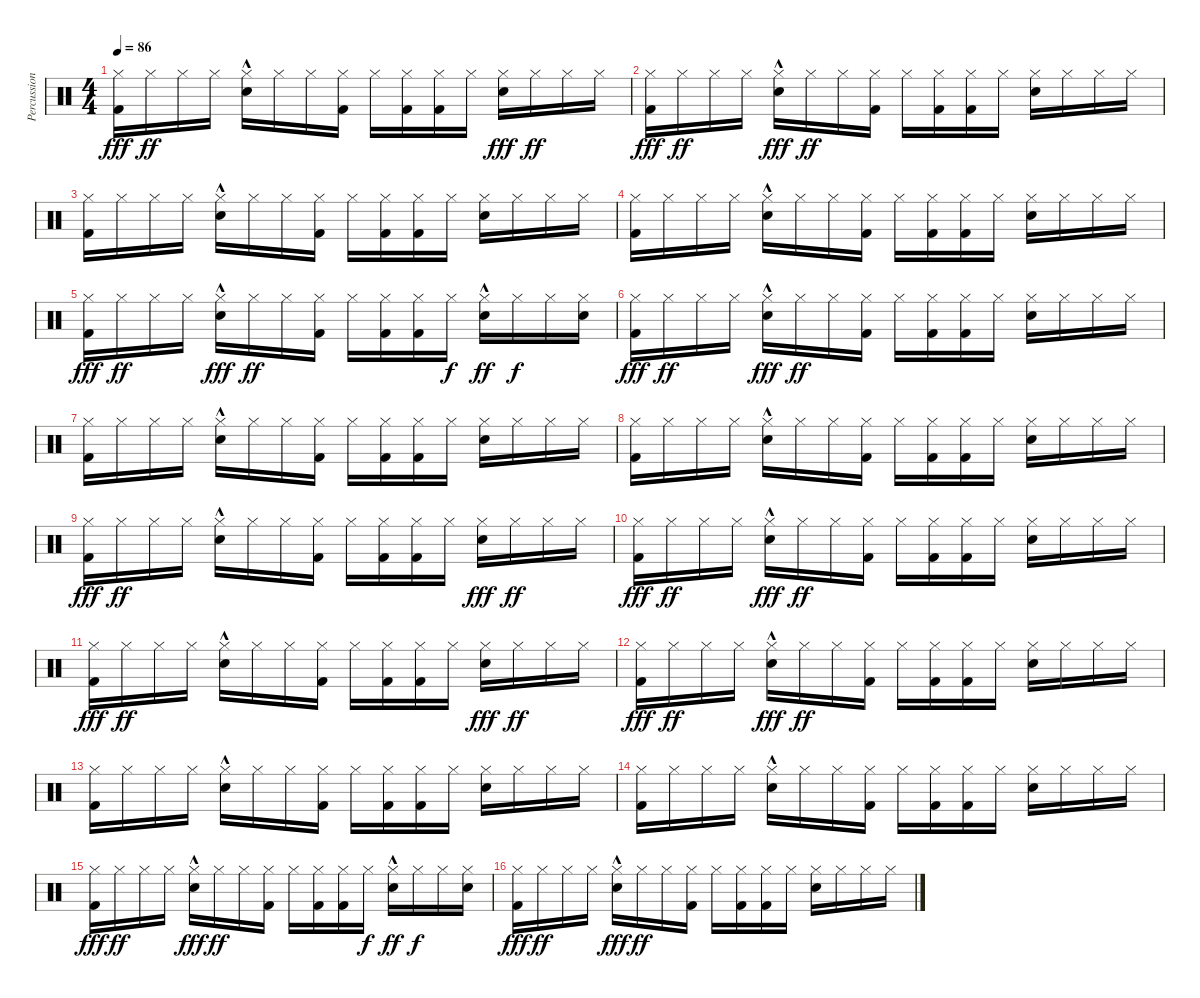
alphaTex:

\track ("Percussion" "Percussion") {instrument percussion}
\staff {score}
\articulation defaults
\ts (4 4)
\tempo 86
\clef neutral
\ks c
("Hi-Hat (closed)" "Kick (hit) 2").16{dy fff} "Hi-Hat (closed)".16{dy ff} "Hi-Hat (closed)".16 "Hi-Hat (closed)".16 ("Hi-Hat (closed)" "Snare (hit) 2"{hac}).16 "Hi-Hat (closed)".16 "Hi-Hat (closed)".16 ("Hi-Hat (closed)" "Kick (hit) 2").16 "Hi-Hat (closed)".16 ("Hi-Hat (closed)" "Kick (hit) 2").16 ("Hi-Hat (closed)" "Kick (hit) 2").16 "Hi-Hat (closed)".16 ("Hi-Hat (closed)" "Snare (hit) 2").16{dy fff} "Hi-Hat (closed)".16{dy ff} "Hi-Hat (closed)".16 "Hi-Hat (closed)".16 |
("Hi-Hat (closed)" "Kick (hit) 2").16{dy fff} "Hi-Hat (closed)".16{dy ff} "Hi-Hat (closed)".16 "Hi-Hat (closed)".16 ("Hi-Hat (closed)" "Snare (hit) 2"{hac}).16{dy fff} "Hi-Hat (closed)".16{dy ff} "Hi-Hat (closed)".16 ("Hi-Hat (closed)" "Kick (hit) 2").16 "Hi-Hat (closed)".16 ("Hi-Hat (closed)" "Kick (hit) 2").16 ("Hi-Hat (closed)" "Kick (hit) 2").16 "Hi-Hat (closed)".16 ("Hi-Hat (closed)" "Snare (hit) 2").16 "Hi-Hat (closed)".16 "Hi-Hat (closed)".16 "Hi-Hat (closed)".16 |
("Hi-Hat (closed)" "Kick (hit) 2").16 "Hi-Hat (closed)".16 "Hi-Hat (closed)".16 "Hi-Hat (closed)".16 ("Snare (hit) 2"{hac} "Hi-Hat (closed)").16 "Hi-Hat (closed)".16 "Hi-Hat (closed)".16 ("Hi-Hat (closed)" "Kick (hit) 2").16 "Hi-Hat (closed)".16 ("Kick (hit) 2" "Hi-Hat (closed)").16 ("Kick (hit) 2" "Hi-Hat (closed)").16 "Hi-Hat (closed)".16 ("Hi-Hat (closed)" "Snare (hit) 2").16 "Hi-Hat (closed)".16 "Hi-Hat (closed)".16 "Hi-Hat (closed)".16 |
("Hi-Hat (closed)" "Kick (hit) 2").16 "Hi-Hat (closed)".16 "Hi-Hat (closed)".16 "Hi-Hat (closed)".16 ("Snare (hit) 2"{hac} "Hi-Hat (closed)").16 "Hi-Hat (closed)".16 "Hi-Hat (closed)".16 ("Hi-Hat (closed)" "Kick (hit) 2").16 "Hi-Hat (closed)".16 ("Kick (hit) 2" "Hi-Hat (closed)").16 ("Kick (hit) 2" "Hi-Hat (closed)").16 "Hi-Hat (closed)".16 ("Hi-Hat (closed)" "Snare (hit) 2").16 "Hi-Hat (closed)".16 "Hi-Hat (closed)".16 "Hi-Hat (closed)".16 |
("Hi-Hat (closed)" "Kick (hit) 2").16{dy fff} "Hi-Hat (closed)".16{dy ff} "Hi-Hat (closed)".16 "Hi-Hat (closed)".16 ("Hi-Hat (closed)" "Snare (hit) 2"{hac}).16{dy fff} "Hi-Hat (closed)".16{dy ff} "Hi-Hat (closed)".16 ("Hi-Hat (closed)" "Kick (hit) 2").16 "Hi-Hat (closed)".16 ("Hi-Hat (closed)" "Kick (hit) 2").16 ("Hi-Hat (closed)" "Kick (hit) 2").16 "Hi-Hat (closed)".16{dy f} ("Hi-Hat (closed)" "Snare (hit) 2"{hac}).16{dy ff} "Hi-Hat (closed)".16{dy f} "Hi-Hat (closed)".16 ("Hi-Hat (closed)" "Snare (hit) 2").16 |
("Hi-Hat (closed)" "Kick (hit) 2").16{dy fff} "Hi-Hat (closed)".16{dy ff} "Hi-Hat (closed)".16 "Hi-Hat (closed)".16 ("Hi-Hat (closed)" "Snare (hit) 2"{hac}).16{dy fff} "Hi-Hat (closed)".16{dy ff} "Hi-Hat (closed)".16 ("Hi-Hat (closed)" "Kick (hit) 2").16 "Hi-Hat (closed)".16 ("Hi-Hat (closed)" "Kick (hit) 2").16 ("Hi-Hat (closed)" "Kick (hit) 2").16 "Hi-Hat (closed)".16 ("Hi-Hat (closed)" "Snare (hit) 2").16 "Hi-Hat (closed)".16 "Hi-Hat (closed)".16 "Hi-Hat (closed)".16 |
("Hi-Hat (closed)" "Kick (hit) 2").16 "Hi-Hat (closed)".16 "Hi-Hat (closed)".16 "Hi-Hat (closed)".16 ("Snare (hit) 2"{hac} "Hi-Hat (closed)").16 "Hi-Hat (closed)".16 "Hi-Hat (closed)".16 ("Hi-Hat (closed)" "Kick (hit) 2").16 "Hi-Hat (closed)".16 ("Kick (hit) 2" "Hi-Hat (closed)").16 ("Kick (hit) 2" "Hi-Hat (closed)").16 "Hi-Hat (closed)".16 ("Hi-Hat (closed)" "Snare (hit) 2").16 "Hi-Hat (closed)".16 "Hi-Hat (closed)".16 "Hi-Hat (closed)".16 |
("Hi-Hat (closed)" "Kick (hit) 2").16 "Hi-Hat (closed)".16 "Hi-Hat (closed)".16 "Hi-Hat (closed)".16 ("Snare (hit) 2"{hac} "Hi-Hat (closed)").16 "Hi-Hat (closed)".16 "Hi-Hat (closed)".16 ("Hi-Hat (closed)" "Kick (hit) 2").16 "Hi-Hat (closed)".16 ("Kick (hit) 2" "Hi-Hat (closed)").16 ("Kick (hit) 2" "Hi-Hat (closed)").16 "Hi-Hat (closed)".16 ("Hi-Hat (closed)" "Snare (hit) 2").16 "Hi-Hat (closed)".16 "Hi-Hat (closed)".16 "Hi-Hat (closed)".16 |
("Hi-Hat (closed)" "Kick (hit) 2").16{dy fff} "Hi-Hat (closed)".16{dy ff} "Hi-Hat (closed)".16 "Hi-Hat (closed)".16 ("Hi-Hat (closed)" "Snare (hit) 2"{hac}).16 "Hi-Hat (closed)".16 "Hi-Hat (closed)".16 ("Hi-Hat (closed)" "Kick (hit) 2").16 "Hi-Hat (closed)".16 ("Hi-Hat (closed)" "Kick (hit) 2").16 ("Hi-Hat (closed)" "Kick (hit) 2").16 "Hi-Hat (closed)".16 ("Hi-Hat (closed)" "Snare (hit) 2").16{dy fff} "Hi-Hat (closed)".16{dy ff} "Hi-Hat (closed)".16 "Hi-Hat (closed)".16 |
("Hi-Hat (closed)" "Kick (hit) 2").16{dy fff} "Hi-Hat (closed)".16{dy ff} "Hi-Hat (closed)".16 "Hi-Hat (closed)".16 ("Hi-Hat (closed)" "Snare (hit) 2"{hac}).16{dy fff} "Hi-Hat (closed)".16{dy ff} "Hi-Hat (closed)".16 ("Hi-Hat (closed)" "Kick (hit) 2").16 "Hi-Hat (closed)".16 ("Hi-Hat (closed)" "Kick (hit) 2").16 ("Hi-Hat (closed)" "Kick (hit) 2").16 "Hi-Hat (closed)".16 ("Hi-Hat (closed)" "Snare (hit) 2").16 "Hi-Hat (closed)".16 "Hi-Hat (closed)".16 "Hi-Hat (closed)".16 |
("Hi-Hat (closed)" "Kick (hit) 2").16{dy fff} "Hi-Hat (closed)".16{dy ff} "Hi-Hat (closed)".16 "Hi-Hat (closed)".16 ("Hi-Hat (closed)" "Snare (hit) 2"{hac}).16 "Hi-Hat (closed)".16 "Hi-Hat (closed)".16 ("Hi-Hat (closed)" "Kick (hit) 2").16 "Hi-Hat (closed)".16 ("Hi-Hat (closed)" "Kick (hit) 2").16 ("Hi-Hat (closed)" "Kick (hit) 2").16 "Hi-Hat (closed)".16 ("Hi-Hat (closed)" "Snare (hit) 2").16{dy fff} "Hi-Hat (closed)".16{dy ff} "Hi-Hat (closed)".16 "Hi-Hat (closed)".16 |
("Hi-Hat (closed)" "Kick (hit) 2").16{dy fff} "Hi-Hat (closed)".16{dy ff} "Hi-Hat (closed)".16 "Hi-Hat (closed)".16 ("Hi-Hat (closed)" "Snare (hit) 2"{hac}).16{dy fff} "Hi-Hat (closed)".16{dy ff} "Hi-Hat (closed)".16 ("Hi-Hat (closed)" "Kick (hit) 2").16 "Hi-Hat (closed)".16 ("Hi-Hat (closed)" "Kick (hit) 2").16 ("Hi-Hat (closed)" "Kick (hit) 2").16 "Hi-Hat (closed)".16 ("Hi-Hat (closed)" "Snare (hit) 2").16 "Hi-Hat (closed)".16 "Hi-Hat (closed)".16 "Hi-Hat (closed)".16 |
("Hi-Hat (closed)" "Kick (hit) 2").16 "Hi-Hat (closed)".16 "Hi-Hat (closed)".16 "Hi-Hat (closed)".16 ("Snare (hit) 2"{hac} "Hi-Hat (closed)").16 "Hi-Hat (closed)".16 "Hi-Hat (closed)".16 ("Hi-Hat (closed)" "Kick (hit) 2").16 "Hi-Hat (closed)".16 ("Kick (hit) 2" "Hi-Hat (closed)").16 ("Kick (hit) 2" "Hi-Hat (closed)").16 "Hi-Hat (closed)".16 ("Hi-Hat (closed)" "Snare (hit) 2").16 "Hi-Hat (closed)".16 "Hi-Hat (closed)".16 "Hi-Hat (closed)".16 |
("Hi-Hat (closed)" "Kick (hit) 2").16 "Hi-Hat (closed)".16 "Hi-Hat (closed)".16 "Hi-Hat (closed)".16 ("Snare (hit) 2"{hac} "Hi-Hat (closed)").16 "Hi-Hat (closed)".16 "Hi-Hat (closed)".16 ("Hi-Hat (closed)" "Kick (hit) 2").16 "Hi-Hat (closed)".16 ("Kick (hit) 2" "Hi-Hat (closed)").16 ("Kick (hit) 2" "Hi-Hat (closed)").16 "Hi-Hat (closed)".16 ("Hi-Hat (closed)" "Snare (hit) 2").16 "Hi-Hat (closed)".16 "Hi-Hat (closed)".16 "Hi-Hat (closed)".16 |
("Hi-Hat (closed)" "Kick (hit) 2").16{dy fff} "Hi-Hat (closed)".16{dy ff} "Hi-Hat (closed)".16 "Hi-Hat (closed)".16 ("Hi-Hat (closed)" "Snare (hit) 2"{hac}).16{dy fff} "Hi-Hat (closed)".16{dy ff} "Hi-Hat (closed)".16 ("Hi-Hat (closed)" "Kick (hit) 2").16 "Hi-Hat (closed)".16 ("Hi-Hat (closed)" "Kick (hit) 2").16 ("Hi-Hat (closed)" "Kick (hit) 2").16 "Hi-Hat (closed)".16{dy f} ("Hi-Hat (closed)" "Snare (hit) 2"{hac}).16{dy ff} "Hi-Hat (closed)".16{dy f} "Hi-Hat (closed)".16 ("Hi-Hat (closed)" "Snare (hit) 2").16 |
("Hi-Hat (closed)" "Kick (hit) 2").16{dy fff} "Hi-Hat (closed)".16{dy ff} "Hi-Hat (closed)".16 "Hi-Hat (closed)".16 ("Hi-Hat (closed)" "Snare (hit) 2"{hac}).16{dy fff} "Hi-Hat (closed)".16{dy ff} "Hi-Hat (closed)".16 ("Hi-Hat (closed)" "Kick (hit) 2").16 "Hi-Hat (closed)".16 ("Hi-Hat (closed)" "Kick (hit) 2").16 ("Hi-Hat (closed)" "Kick (hit) 2").16 "Hi-Hat (closed)".16 ("Hi-Hat (closed)" "Snare (hit) 2").16 "Hi-Hat (closed)".16 "Hi-Hat (closed)".16 "Hi-Hat (closed)".16
